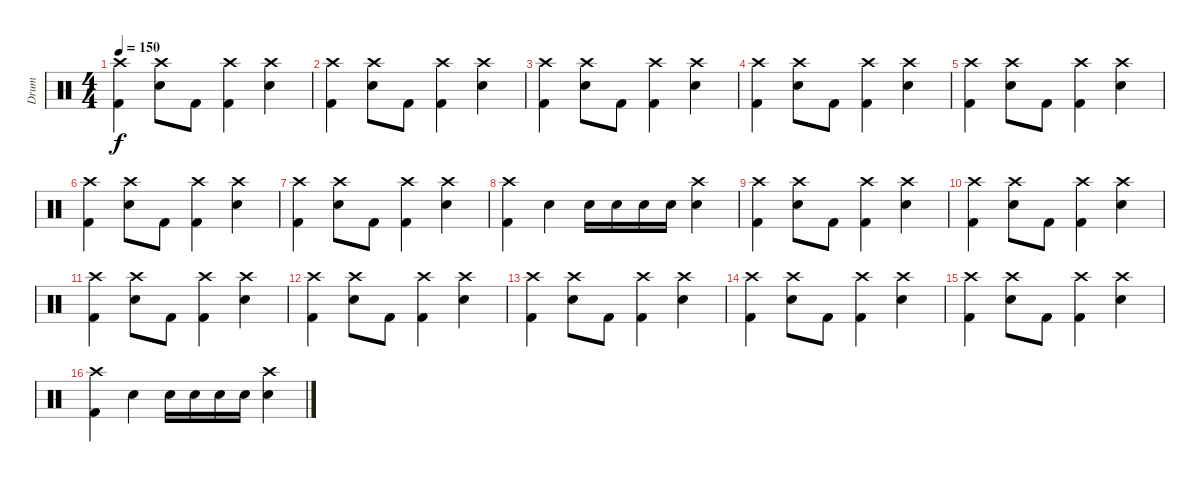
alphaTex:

\track ("Drum" "Drum") {instrument percussion}
\staff {score}
\articulation defaults
\ts (4 4)
\tempo 150
\clef neutral
\ks c
("Crash high (hit)" "Kick (hit) 2").4{dy f} ("Crash high (hit)" "Snare (hit) 2").8 "Kick (hit) 2".8 ("Crash high (hit)" "Kick (hit) 2").4 ("Crash high (hit)" "Snare (hit) 2").4 |
("Crash high (hit)" "Kick (hit) 2").4 ("Crash high (hit)" "Snare (hit) 2").8 "Kick (hit) 2".8 ("Crash high (hit)" "Kick (hit) 2").4 ("Crash high (hit)" "Snare (hit) 2").4 |
("Crash high (hit)" "Kick (hit) 2").4 ("Crash high (hit)" "Snare (hit) 2").8 "Kick (hit) 2".8 ("Crash high (hit)" "Kick (hit) 2").4 ("Crash high (hit)" "Snare (hit) 2").4 |
("Crash high (hit)" "Kick (hit) 2").4 ("Crash high (hit)" "Snare (hit) 2").8 "Kick (hit) 2".8 ("Crash high (hit)" "Kick (hit) 2").4 ("Crash high (hit)" "Snare (hit) 2").4 |
("Crash high (hit)" "Kick (hit) 2").4 ("Crash high (hit)" "Snare (hit) 2").8 "Kick (hit) 2".8 ("Crash high (hit)" "Kick (hit) 2").4 ("Crash high (hit)" "Snare (hit) 2").4 |
("Crash high (hit)" "Kick (hit) 2").4 ("Crash high (hit)" "Snare (hit) 2").8 "Kick (hit) 2".8 ("Crash high (hit)" "Kick (hit) 2").4 ("Crash high (hit)" "Snare (hit) 2").4 |
("Crash high (hit)" "Kick (hit) 2").4 ("Crash high (hit)" "Snare (hit) 2").8 "Kick (hit) 2".8 ("Crash high (hit)" "Kick (hit) 2").4 ("Crash high (hit)" "Snare (hit) 2").4 |
("Crash high (hit)" "Kick (hit) 2").4 "Snare (hit) 2".4 "Snare (hit) 2".16 "Snare (hit) 2".16 "Snare (hit) 2".16 "Snare (hit) 2".16 ("Crash high (hit)" "Snare (hit) 2").4 |
("Crash high (hit)" "Kick (hit) 2").4 ("Crash high (hit)" "Snare (hit) 2").8 "Kick (hit) 2".8 ("Crash high (hit)" "Kick (hit) 2").4 ("Crash high (hit)" "Snare (hit) 2").4 |
("Crash high (hit)" "Kick (hit) 2").4 ("Crash high (hit)" "Snare (hit) 2").8 "Kick (hit) 2".8 ("Crash high (hit)" "Kick (hit) 2").4 ("Crash high (hit)" "Snare (hit) 2").4 |
("Crash high (hit)" "Kick (hit) 2").4 ("Crash high (hit)" "Snare (hit) 2").8 "Kick (hit) 2".8 ("Crash high (hit)" "Kick (hit) 2").4 ("Crash high (hit)" "Snare (hit) 2").4 |
("Crash high (hit)" "Kick (hit) 2").4 ("Crash high (hit)" "Snare (hit) 2").8 "Kick (hit) 2".8 ("Crash high (hit)" "Kick (hit) 2").4 ("Crash high (hit)" "Snare (hit) 2").4 |
("Crash high (hit)" "Kick (hit) 2").4 ("Crash high (hit)" "Snare (hit) 2").8 "Kick (hit) 2".8 ("Crash high (hit)" "Kick (hit) 2").4 ("Crash high (hit)" "Snare (hit) 2").4 |
("Crash high (hit)" "Kick (hit) 2").4 ("Crash high (hit)" "Snare (hit) 2").8 "Kick (hit) 2".8 ("Crash high (hit)" "Kick (hit) 2").4 ("Crash high (hit)" "Snare (hit) 2").4 |
("Crash high (hit)" "Kick (hit) 2").4 ("Crash high (hit)" "Snare (hit) 2").8 "Kick (hit) 2".8 ("Crash high (hit)" "Kick (hit) 2").4 ("Crash high (hit)" "Snare (hit) 2").4 |
("Crash high (hit)" "Kick (hit) 2").4 "Snare (hit) 2".4 "Snare (hit) 2".16 "Snare (hit) 2".16 "Snare (hit) 2".16 "Snare (hit) 2".16 ("Crash high (hit)" "Snare (hit) 2").4
